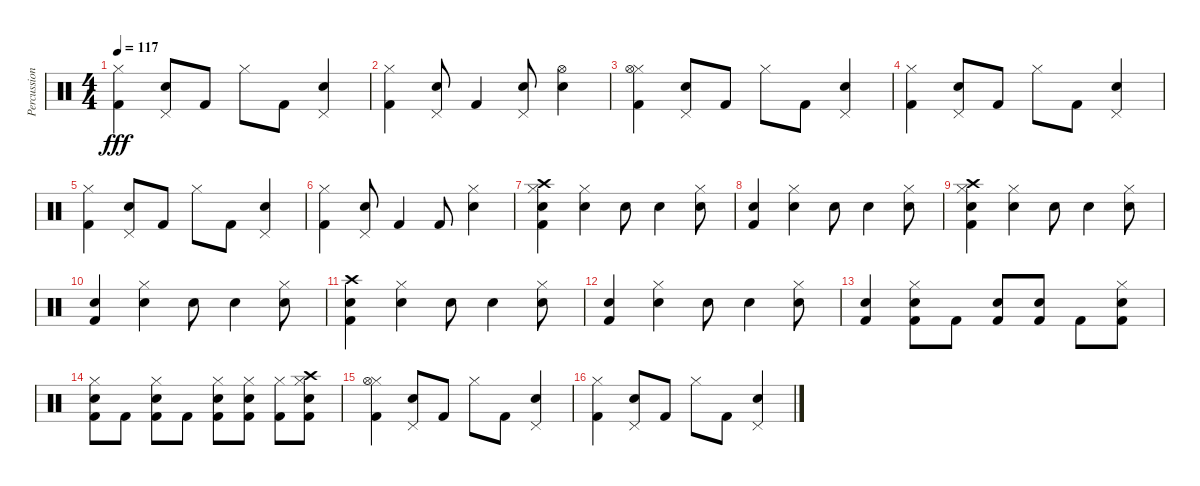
\track ("Percussion" "Percussion") {instrument percussion}
\staff {score}
\articulation defaults
\ts (4 4)
\tempo 117
\clef neutral
\ks c
("Hi-Hat (closed)" "Kick (hit) 2").4{dy fff} ("Pedal Hi-Hat (hit)" "Electric Snare (hit)").8 "Kick (hit) 2".8 "Hi-Hat (closed)".8 "Kick (hit) 2".8 ("Pedal Hi-Hat (hit)" "Electric Snare (hit)").4 |
("Hi-Hat (closed)" "Kick (hit) 2").4 ("Pedal Hi-Hat (hit)" "Electric Snare (hit)").8 "Kick (hit) 2".4 ("Pedal Hi-Hat (hit)" "Electric Snare (hit)").8 ("Hi-Hat (open)" "Electric Snare (hit)").4 |
("Hi-Hat (closed)" "Kick (hit) 2" "Hi-Hat (open)").4 ("Pedal Hi-Hat (hit)" "Electric Snare (hit)").8 "Kick (hit) 2".8 "Hi-Hat (closed)".8 "Kick (hit) 2".8 ("Pedal Hi-Hat (hit)" "Electric Snare (hit)").4 |
("Hi-Hat (closed)" "Kick (hit) 2").4 ("Pedal Hi-Hat (hit)" "Electric Snare (hit)").8 "Kick (hit) 2".8 "Hi-Hat (closed)".8 "Kick (hit) 2".8 ("Pedal Hi-Hat (hit)" "Electric Snare (hit)").4 |
("Hi-Hat (closed)" "Kick (hit) 2").4 ("Pedal Hi-Hat (hit)" "Electric Snare (hit)").8 "Kick (hit) 2".8 "Hi-Hat (closed)".8 "Kick (hit) 2".8 ("Pedal Hi-Hat (hit)" "Electric Snare (hit)").4 |
("Hi-Hat (closed)" "Kick (hit) 2").4 ("Pedal Hi-Hat (hit)" "Electric Snare (hit)").8 "Kick (hit) 2".4 "Kick (hit) 2".8 ("Hi-Hat (closed)" "Electric Snare (hit)").4 |
("Crash high (hit)" "Hi-Hat (closed)" "Electric Snare (hit)" "Kick (hit) 2").4 ("Hi-Hat (closed)" "Electric Snare (hit)").4 "Electric Snare (hit)".8 "Electric Snare (hit)".4 ("Hi-Hat (closed)" "Electric Snare (hit)").8 |
("Electric Snare (hit)" "Kick (hit) 2").4 ("Hi-Hat (closed)" "Electric Snare (hit)").4 "Electric Snare (hit)".8 "Electric Snare (hit)".4 ("Hi-Hat (closed)" "Electric Snare (hit)").8 |
("Crash high (hit)" "Hi-Hat (closed)" "Electric Snare (hit)" "Kick (hit) 2").4 ("Hi-Hat (closed)" "Electric Snare (hit)").4 "Electric Snare (hit)".8 "Electric Snare (hit)".4 ("Hi-Hat (closed)" "Electric Snare (hit)").8 |
("Electric Snare (hit)" "Kick (hit) 2").4 ("Hi-Hat (closed)" "Electric Snare (hit)").4 "Electric Snare (hit)".8 "Electric Snare (hit)".4 ("Hi-Hat (closed)" "Electric Snare (hit)").8 |
("Crash high (hit)" "Electric Snare (hit)" "Kick (hit) 2").4 ("Hi-Hat (closed)" "Electric Snare (hit)").4 "Electric Snare (hit)".8 "Electric Snare (hit)".4 ("Hi-Hat (closed)" "Electric Snare (hit)").8 |
("Electric Snare (hit)" "Kick (hit) 2").4 ("Hi-Hat (closed)" "Electric Snare (hit)").4 "Electric Snare (hit)".8 "Electric Snare (hit)".4 ("Hi-Hat (closed)" "Electric Snare (hit)").8 |
("Electric Snare (hit)" "Kick (hit) 2").4 ("Hi-Hat (closed)" "Electric Snare (hit)" "Kick (hit) 2").8 "Kick (hit) 2".8 ("Electric Snare (hit)" "Kick (hit) 2").8 ("Electric Snare (hit)" "Kick (hit) 2").8 "Kick (hit) 2".8 ("Hi-Hat (closed)" "Electric Snare (hit)" "Kick (hit) 2").8 |
("Hi-Hat (closed)" "Electric Snare (hit)" "Kick (hit) 2").8 "Kick (hit) 2".8 ("Hi-Hat (closed)" "Electric Snare (hit)" "Kick (hit) 2").8 "Kick (hit) 2".8 ("Hi-Hat (closed)" "Electric Snare (hit)" "Kick (hit) 2").8 ("Hi-Hat (closed)" "Electric Snare (hit)" "Kick (hit) 2").8 ("Hi-Hat (closed)" "Kick (hit) 2").8 ("Crash high (hit)" "Hi-Hat (closed)" "Electric Snare (hit)" "Kick (hit) 2").8 |
("Hi-Hat (closed)" "Kick (hit) 2" "Hi-Hat (open)").4 ("Pedal Hi-Hat (hit)" "Electric Snare (hit)").8 "Kick (hit) 2".8 "Hi-Hat (closed)".8 "Kick (hit) 2".8 ("Pedal Hi-Hat (hit)" "Electric Snare (hit)").4 |
("Hi-Hat (closed)" "Kick (hit) 2").4 ("Pedal Hi-Hat (hit)" "Electric Snare (hit)").8 "Kick (hit) 2".8 "Hi-Hat (closed)".8 "Kick (hit) 2".8 ("Pedal Hi-Hat (hit)" "Electric Snare (hit)").4
